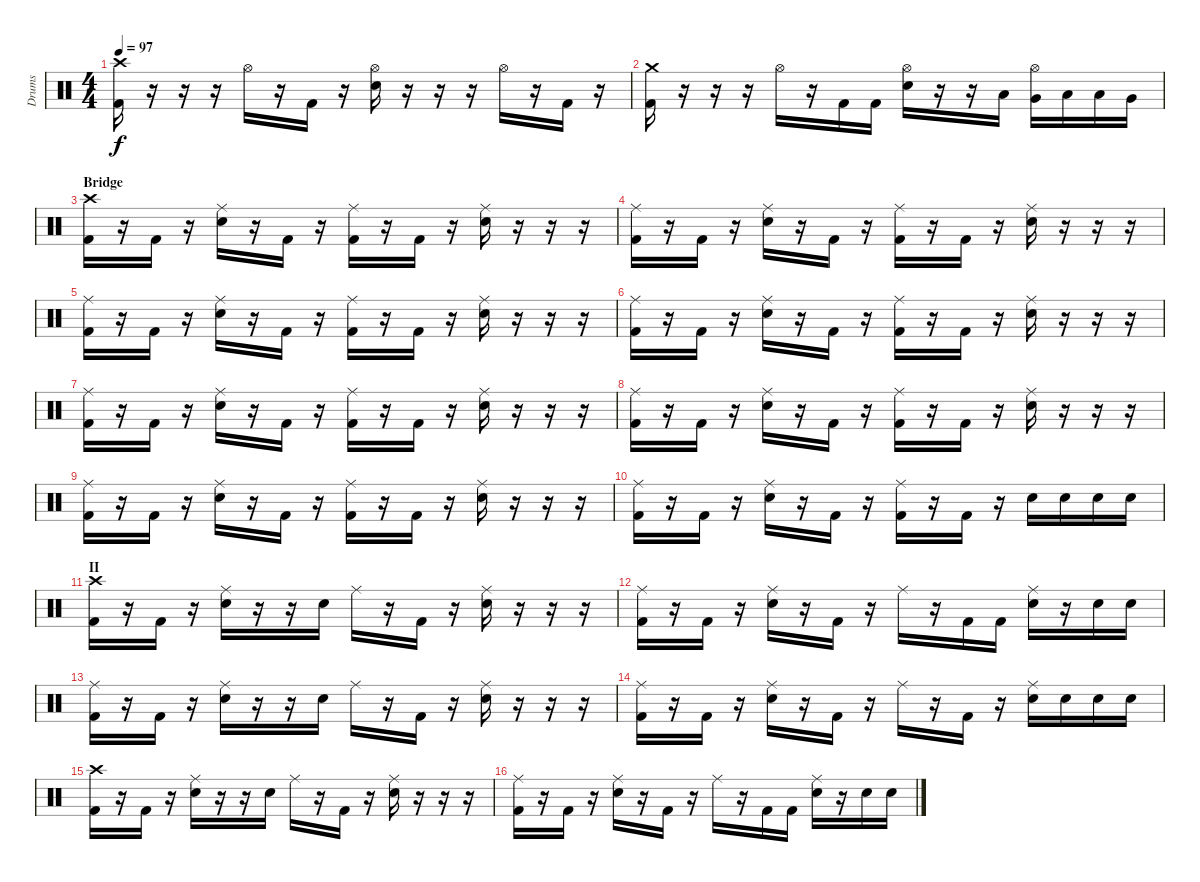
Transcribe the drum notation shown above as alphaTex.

\track ("Drums" "Drums") {instrument percussion}
\staff {score}
\articulation defaults
\ts (4 4)
\tempo 97
\clef neutral
\ks c
("Kick (hit) 2" "Crash high (hit)").16{dy f} r.16 r.16 r.16 "Hi-Hat (open)".16 r.16 "Kick (hit) 2".16 r.16 ("Electric Snare (hit)" "Hi-Hat (open)").16 r.16 r.16 r.16 "Hi-Hat (open)".16 r.16 "Kick (hit) 2".16 r.16 |
("Kick (hit) 2" "Crash medium (hit)").16 r.16 r.16 r.16 "Hi-Hat (open)".16 r.16 "Kick (hit) 2".16 "Kick (hit) 2".16 ("Electric Snare (hit)" "Hi-Hat (open)").16 r.16 r.16 "Low Tom (hit)".16 ("Very Low Tom (hit)" "Hi-Hat (open)").16 "Low Floor Tom (hit)".16 "Low Floor Tom (hit)".16 "Very Low Tom (hit)".16 |
\section ("" "Bridge")
("Kick (hit) 2" "Crash high (hit)").16 r.16 "Kick (hit) 2".16 r.16 ("Electric Snare (hit)" "Ride (middle)").16 r.16 "Kick (hit) 2".16 r.16 ("Kick (hit) 2" "Ride (middle)").16 r.16 "Kick (hit) 2".16 r.16 ("Electric Snare (hit)" "Ride (middle)").16 r.16 r.16 r.16 |
("Kick (hit) 2" "Ride (middle)").16 r.16 "Kick (hit) 2".16 r.16 ("Electric Snare (hit)" "Ride (middle)").16 r.16 "Kick (hit) 2".16 r.16 ("Kick (hit) 2" "Ride (middle)").16 r.16 "Kick (hit) 2".16 r.16 ("Electric Snare (hit)" "Ride (middle)").16 r.16 r.16 r.16 |
("Kick (hit) 2" "Ride (middle)").16 r.16 "Kick (hit) 2".16 r.16 ("Electric Snare (hit)" "Ride (middle)").16 r.16 "Kick (hit) 2".16 r.16 ("Kick (hit) 2" "Ride (middle)").16 r.16 "Kick (hit) 2".16 r.16 ("Electric Snare (hit)" "Ride (middle)").16 r.16 r.16 r.16 |
("Kick (hit) 2" "Ride (middle)").16 r.16 "Kick (hit) 2".16 r.16 ("Electric Snare (hit)" "Ride (middle)").16 r.16 "Kick (hit) 2".16 r.16 ("Kick (hit) 2" "Ride (middle)").16 r.16 "Kick (hit) 2".16 r.16 ("Electric Snare (hit)" "Ride (middle)").16 r.16 r.16 r.16 |
("Kick (hit) 2" "Ride (middle)").16 r.16 "Kick (hit) 2".16 r.16 ("Electric Snare (hit)" "Ride (middle)").16 r.16 "Kick (hit) 2".16 r.16 ("Kick (hit) 2" "Ride (middle)").16 r.16 "Kick (hit) 2".16 r.16 ("Electric Snare (hit)" "Ride (middle)").16 r.16 r.16 r.16 |
("Kick (hit) 2" "Ride (middle)").16 r.16 "Kick (hit) 2".16 r.16 ("Electric Snare (hit)" "Ride (middle)").16 r.16 "Kick (hit) 2".16 r.16 ("Kick (hit) 2" "Ride (middle)").16 r.16 "Kick (hit) 2".16 r.16 ("Electric Snare (hit)" "Ride (middle)").16 r.16 r.16 r.16 |
("Kick (hit) 2" "Ride (middle)").16 r.16 "Kick (hit) 2".16 r.16 ("Electric Snare (hit)" "Ride (middle)").16 r.16 "Kick (hit) 2".16 r.16 ("Kick (hit) 2" "Ride (middle)").16 r.16 "Kick (hit) 2".16 r.16 ("Electric Snare (hit)" "Ride (middle)").16 r.16 r.16 r.16 |
("Kick (hit) 2" "Ride (middle)").16 r.16 "Kick (hit) 2".16 r.16 ("Electric Snare (hit)" "Ride (middle)").16 r.16 "Kick (hit) 2".16 r.16 ("Kick (hit) 2" "Ride (middle)").16 r.16 "Kick (hit) 2".16 r.16 "Electric Snare (hit)".16 "Electric Snare (hit)".16 "Electric Snare (hit)".16 "Electric Snare (hit)".16 |
\section ("" "II")
("Kick (hit) 2" "Crash high (hit)").16 r.16 "Kick (hit) 2".16 r.16 ("Electric Snare (hit)" "Ride (middle)").16 r.16 r.16 "Electric Snare (hit)".16 "Ride (middle)".16 r.16 "Kick (hit) 2".16 r.16 ("Electric Snare (hit)" "Ride (middle)").16 r.16 r.16 r.16 |
("Kick (hit) 2" "Ride (middle)").16 r.16 "Kick (hit) 2".16 r.16 ("Electric Snare (hit)" "Ride (middle)").16 r.16 "Kick (hit) 2".16 r.16 "Ride (middle)".16 r.16 "Kick (hit) 2".16 "Kick (hit) 2".16 ("Electric Snare (hit)" "Ride (middle)").16 r.16 "Electric Snare (hit)".16 "Electric Snare (hit)".16 |
("Kick (hit) 2" "Ride (middle)").16 r.16 "Kick (hit) 2".16 r.16 ("Electric Snare (hit)" "Ride (middle)").16 r.16 r.16 "Electric Snare (hit)".16 "Ride (middle)".16 r.16 "Kick (hit) 2".16 r.16 ("Electric Snare (hit)" "Ride (middle)").16 r.16 r.16 r.16 |
("Kick (hit) 2" "Ride (middle)").16 r.16 "Kick (hit) 2".16 r.16 ("Electric Snare (hit)" "Ride (middle)").16 r.16 "Kick (hit) 2".16 r.16 "Ride (middle)".16 r.16 "Kick (hit) 2".16 r.16 ("Electric Snare (hit)" "Ride (middle)").16 "Electric Snare (hit)".16 "Electric Snare (hit)".16 "Electric Snare (hit)".16 |
("Kick (hit) 2" "Crash high (hit)").16 r.16 "Kick (hit) 2".16 r.16 ("Electric Snare (hit)" "Ride (middle)").16 r.16 r.16 "Electric Snare (hit)".16 "Ride (middle)".16 r.16 "Kick (hit) 2".16 r.16 ("Electric Snare (hit)" "Ride (middle)").16 r.16 r.16 r.16 |
("Kick (hit) 2" "Ride (middle)").16 r.16 "Kick (hit) 2".16 r.16 ("Electric Snare (hit)" "Ride (middle)").16 r.16 "Kick (hit) 2".16 r.16 "Ride (middle)".16 r.16 "Kick (hit) 2".16 "Kick (hit) 2".16 ("Electric Snare (hit)" "Ride (middle)").16 r.16 "Electric Snare (hit)".16 "Electric Snare (hit)".16
